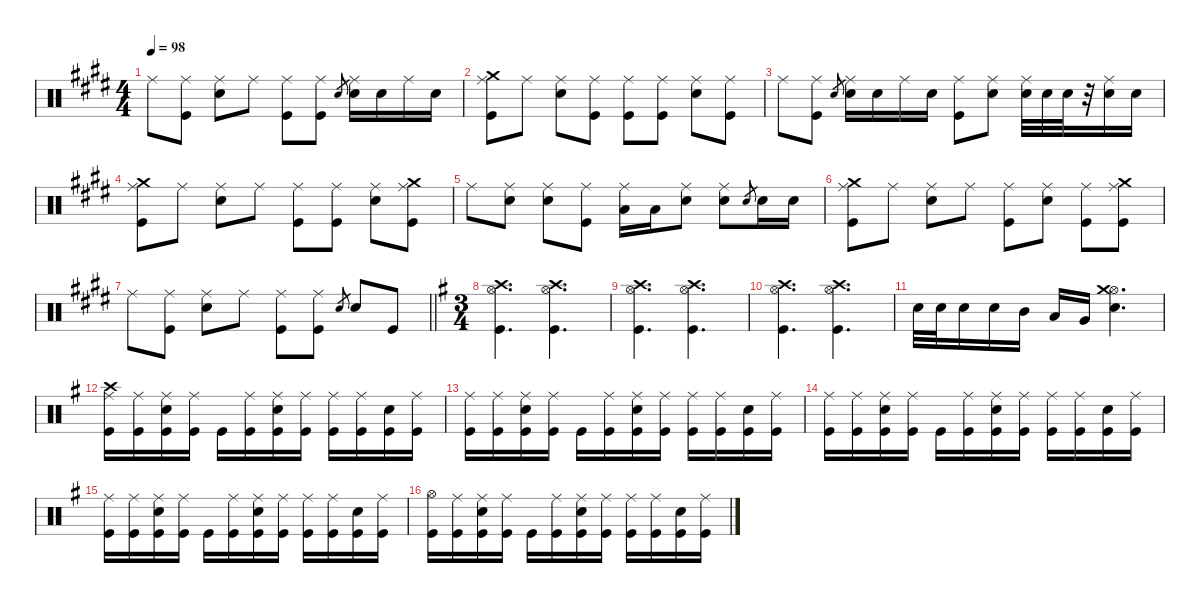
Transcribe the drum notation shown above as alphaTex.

\defaultSystemsLayout 4
\hideDynamics
\bracketExtendMode nobrackets
\singleTrackTrackNamePolicy hidden
\multiTrackTrackNamePolicy hidden
\firstSystemTrackNameMode fullname
\otherSystemsTrackNameOrientation horizontal
\track ("Drums" "drm.") {instrument percussion}
\staff {score}
\articulation defaults
\ts (4 4)
\tempo 98
\clef neutral
\ks c#minor "Ride (middle)"{acc forcenatural}.8{dy f beam Down}
("Ride (middle)"{acc forcenatural} "Kick (hit)"{acc forcenatural}).8{beam Down} ("Ride (middle)"{acc forcenatural} "Snare (hit) 2"{acc forcenatural}).8{beam Down} "Ride (middle)"{acc forcenatural}.8{beam Down} ("Ride (middle)"{acc forcenatural} "Kick (hit)"{acc forcenatural}).8{beam Down} ("Ride (middle)"{acc forcenatural} "Kick (hit)"{acc forcenatural}).8{beam Down} "Electric Snare (hit)"{acc forcenatural}.8{gr dy p beam Up} ("Ride (middle)"{acc forcenatural} "Snare (hit) 2"{acc forcenatural}).16{dy f beam Down} "Snare (hit) 2"{acc forcenatural}.16{beam Down} "Ride (middle)"{acc forcenatural}.16{beam Down} "Snare (hit) 2"{acc forcenatural}.16{beam Down} |
("Crash medium (hit)"{acc forcenatural} "Ride (middle)"{acc forcenatural} "Kick (hit)"{acc forcenatural}).8{dy mf beam Down} "Ride (middle)"{acc forcenatural}.8{dy f beam Down} ("Ride (middle)"{acc forcenatural} "Snare (hit) 2"{acc forcenatural}).8{beam Down} ("Ride (middle)"{acc forcenatural} "Kick (hit)"{acc forcenatural}).8{beam Down} ("Ride (middle)"{acc forcenatural} "Kick (hit)"{acc forcenatural}).8{beam Down} ("Ride (middle)"{acc forcenatural} "Kick (hit)"{acc forcenatural}).8{beam Down} ("Ride (middle)"{acc forcenatural} "Snare (hit) 2"{acc forcenatural}).8{beam Down} ("Ride (middle)"{acc forcenatural} "Kick (hit)"{acc forcenatural}).8{beam Down} |
"Ride (middle)"{acc forcenatural}.8{beam Down} ("Ride (middle)"{acc forcenatural} "Kick (hit)"{acc forcenatural}).8{beam Down} "Electric Snare (hit)"{acc forcenatural}.8{gr dy p beam Up} ("Ride (middle)"{acc forcenatural} "Snare (hit) 2"{acc forcenatural}).16{dy f beam Down} "Snare (hit) 2"{acc forcenatural}.16{beam Down} "Ride (middle)"{acc forcenatural}.16{beam Down} "Snare (hit) 2"{acc forcenatural}.16{beam Down} ("Ride (middle)"{acc forcenatural} "Kick (hit)"{acc forcenatural}).8{beam Down} ("Ride (middle)"{acc forcenatural} "Snare (hit) 2"{acc forcenatural}).8{beam Down} ("Ride (middle)"{acc forcenatural} "Snare (hit) 2"{acc forcenatural}).32{beam Down} "Snare (hit) 2"{acc forcenatural}.32{dy p beam Down} "Snare (hit) 2"{acc forcenatural}.32{beam Down} r.32{beam Down} ("Ride (middle)"{acc forcenatural} "Snare (hit) 2"{acc forcenatural}).16{dy f beam Down} "Snare (hit) 2"{acc forcenatural}.16{beam Down} |
("Crash medium (hit)"{acc forcenatural} "Ride (middle)"{acc forcenatural} "Kick (hit)"{acc forcenatural}).8{dy mf beam Down} "Ride (middle)"{acc forcenatural}.8{dy f beam Down} ("Ride (middle)"{acc forcenatural} "Snare (hit) 2"{acc forcenatural}).8{beam Down} "Ride (middle)"{acc forcenatural}.8{beam Down} ("Ride (middle)"{acc forcenatural} "Kick (hit)"{acc forcenatural}).8{beam Down} ("Ride (middle)"{acc forcenatural} "Kick (hit)"{acc forcenatural}).8{beam Down} ("Ride (middle)"{acc forcenatural} "Snare (hit) 2"{acc forcenatural}).8{beam Down} ("Crash medium (hit)"{acc forcenatural} "Ride (middle)"{acc forcenatural} "Kick (hit)"{acc forcenatural}).8{dy mp beam Down} |
"Ride (middle)"{acc forcenatural}.8{dy f beam Down} ("Ride (middle)"{acc forcenatural} "Snare (hit) 2"{acc forcenatural}).8{beam Down} ("Ride (middle)"{acc forcenatural} "Snare (hit) 2"{acc forcenatural}).8{beam Down} ("Ride (middle)"{acc forcenatural} "Kick (hit)"{acc forcenatural}).8{beam Down} ("Ride (middle)"{acc forcenatural} "Low Tom (hit)"{acc forcenatural}).16{beam Down} "Low Tom (hit)"{acc forcenatural}.16{beam Down} ("Ride (middle)"{acc forcenatural} "Snare (hit) 2"{acc forcenatural}).8{beam Down} ("Ride (middle)"{acc forcenatural} "Snare (hit) 2"{acc forcenatural}).8{beam Down} "Electric Snare (hit)"{acc forcenatural}.8{gr dy pp beam Up} "Snare (hit) 2"{acc forcenatural}.16{dy f beam Down} "Snare (hit) 2"{acc forcenatural}.16{beam Down} |
("Crash medium (hit)"{acc forcenatural} "Ride (middle)"{acc forcenatural} "Kick (hit)"{acc forcenatural}).8{dy mf beam Down} "Ride (middle)"{acc forcenatural}.8{dy f beam Down} ("Ride (middle)"{acc forcenatural} "Snare (hit) 2"{acc forcenatural}).8{beam Down} "Ride (middle)"{acc forcenatural}.8{beam Down} ("Ride (middle)"{acc forcenatural} "Kick (hit)"{acc forcenatural}).8{beam Down} ("Ride (middle)"{acc forcenatural} "Snare (hit) 2"{acc forcenatural}).8{beam Down} ("Ride (middle)"{acc forcenatural} "Kick (hit)"{acc forcenatural}).8{beam Down} ("Crash medium (hit)"{acc forcenatural} "Ride (middle)"{acc forcenatural} "Kick (hit)"{acc forcenatural}).8{dy mf beam Down} |
\barLineRight lightlight "Ride (middle)"{acc forcenatural}.8{dy f beam Down}
("Ride (middle)"{acc forcenatural} "Kick (hit)"{acc forcenatural}).8{beam Down} ("Ride (middle)"{acc forcenatural} "Snare (hit) 2"{acc forcenatural}).8{beam Down} "Ride (middle)"{acc forcenatural}.8{beam Down} ("Ride (middle)"{acc forcenatural} "Kick (hit)"{acc forcenatural}).8{beam Down} ("Ride (middle)"{acc forcenatural} "Kick (hit)"{acc forcenatural}).8{beam Down} "Snare (hit) 2"{acc forcenatural}.8{gr beam Up} "Snare (hit) 2"{acc forcenatural}.8{dy ff beam Up} "Kick (hit)"{acc forcenatural}.8{dy f beam Up} |
\ts (3 4)
\beaming (8 2 2 2)
\ks eminor
("Crash high (hit)"{acc forcenatural} "Hi-Hat (open)"{acc forcenatural} "Kick (hit)"{acc forcenatural}).4{d beam Down} ("Crash high (hit)"{acc forcenatural} "Hi-Hat (open)"{acc forcenatural} "Kick (hit)"{acc forcenatural}).4{d beam Down} |
("Crash high (hit)"{acc forcenatural} "Hi-Hat (open)"{acc forcenatural} "Kick (hit)"{acc forcenatural}).4{d beam Down} ("Crash high (hit)"{acc forcenatural} "Hi-Hat (open)"{acc forcenatural} "Kick (hit)"{acc forcenatural}).4{d beam Down} |
("Crash high (hit)"{acc forcenatural} "Hi-Hat (open)"{acc forcenatural} "Kick (hit)"{acc forcenatural}).4{d beam Down} ("Crash high (hit)"{acc forcenatural} "Hi-Hat (open)"{acc forcenatural} "Kick (hit)"{acc forcenatural}).4{d beam Down} |
"Snare (hit) 2"{acc forcenatural}.32{beam Down} "Snare (hit) 2"{acc forcenatural}.32{beam Down} "Snare (hit) 2"{acc forcenatural}.16{beam Down} "Snare (hit) 2"{acc forcenatural}.16{beam Down} "Mid Tom (hit)"{acc forcenatural}.16{beam Down} "Low Tom (hit)"{acc forcenatural}.16{beam Up} "Very Low Tom (hit)"{acc forcenatural}.16{beam Up} ("Hi-Hat (open)"{acc forcenatural} "Crash medium (hit)"{acc forcenatural} "Snare (hit) 2"{acc forcenatural}).4{d beam Down} |
("Crash high (hit)"{acc forcenatural} "Ride (middle)"{acc forcenatural} "Kick (hit)"{acc forcenatural}).16{beam Down} ("Ride (middle)"{acc forcenatural} "Kick (hit)"{acc forcenatural}).16{beam Down} ("Ride (middle)"{acc forcenatural} "Snare (hit) 2"{acc forcenatural} "Kick (hit)"{acc forcenatural}).16{beam Down} ("Ride (middle)"{acc forcenatural} "Kick (hit)"{acc forcenatural}).16{beam Down} "Kick (hit)"{acc forcenatural}.16{beam Down} ("Ride (middle)"{acc forcenatural} "Kick (hit)"{acc forcenatural}).16{beam Down} ("Ride (middle)"{acc forcenatural} "Snare (hit) 2"{acc forcenatural} "Kick (hit)"{acc forcenatural}).16{beam Down} ("Ride (middle)"{acc forcenatural} "Kick (hit)"{acc forcenatural}).16{beam Down} ("Ride (middle)"{acc forcenatural} "Kick (hit)"{acc forcenatural}).16{beam Down} ("Ride (middle)"{acc forcenatural} "Kick (hit)"{acc forcenatural}).16{beam Down} ("Snare (hit) 2"{acc forcenatural} "Kick (hit)"{acc forcenatural}).16{beam Down} ("Ride (middle)"{acc forcenatural} "Kick (hit)"{acc forcenatural}).16{beam Down} |
("Ride (middle)"{acc forcenatural} "Kick (hit)"{acc forcenatural}).16{beam Down} ("Ride (middle)"{acc forcenatural} "Kick (hit)"{acc forcenatural}).16{beam Down} ("Ride (middle)"{acc forcenatural} "Snare (hit) 2"{acc forcenatural} "Kick (hit)"{acc forcenatural}).16{beam Down} ("Ride (middle)"{acc forcenatural} "Kick (hit)"{acc forcenatural}).16{beam Down} "Kick (hit)"{acc forcenatural}.16{beam Down} ("Ride (middle)"{acc forcenatural} "Kick (hit)"{acc forcenatural}).16{beam Down} ("Ride (middle)"{acc forcenatural} "Snare (hit) 2"{acc forcenatural} "Kick (hit)"{acc forcenatural}).16{beam Down} ("Ride (middle)"{acc forcenatural} "Kick (hit)"{acc forcenatural}).16{beam Down} ("Ride (middle)"{acc forcenatural} "Kick (hit)"{acc forcenatural}).16{beam Down} ("Ride (middle)"{acc forcenatural} "Kick (hit)"{acc forcenatural}).16{beam Down} ("Snare (hit) 2"{acc forcenatural} "Kick (hit)"{acc forcenatural}).16{beam Down} ("Ride (middle)"{acc forcenatural} "Kick (hit)"{acc forcenatural}).16{beam Down} |
("Ride (middle)"{acc forcenatural} "Kick (hit)"{acc forcenatural}).16{beam Down} ("Ride (middle)"{acc forcenatural} "Kick (hit)"{acc forcenatural}).16{beam Down} ("Ride (middle)"{acc forcenatural} "Snare (hit) 2"{acc forcenatural} "Kick (hit)"{acc forcenatural}).16{beam Down} ("Ride (middle)"{acc forcenatural} "Kick (hit)"{acc forcenatural}).16{beam Down} "Kick (hit)"{acc forcenatural}.16{beam Down} ("Ride (middle)"{acc forcenatural} "Kick (hit)"{acc forcenatural}).16{beam Down} ("Ride (middle)"{acc forcenatural} "Snare (hit) 2"{acc forcenatural} "Kick (hit)"{acc forcenatural}).16{beam Down} ("Ride (middle)"{acc forcenatural} "Kick (hit)"{acc forcenatural}).16{beam Down} ("Ride (middle)"{acc forcenatural} "Kick (hit)"{acc forcenatural}).16{beam Down} ("Ride (middle)"{acc forcenatural} "Kick (hit)"{acc forcenatural}).16{beam Down} ("Snare (hit) 2"{acc forcenatural} "Kick (hit)"{acc forcenatural}).16{beam Down} ("Ride (middle)"{acc forcenatural} "Kick (hit)"{acc forcenatural}).16{beam Down} |
("Ride (middle)"{acc forcenatural} "Kick (hit)"{acc forcenatural}).16{beam Down} ("Ride (middle)"{acc forcenatural} "Kick (hit)"{acc forcenatural}).16{beam Down} ("Ride (middle)"{acc forcenatural} "Snare (hit) 2"{acc forcenatural} "Kick (hit)"{acc forcenatural}).16{beam Down} ("Ride (middle)"{acc forcenatural} "Kick (hit)"{acc forcenatural}).16{beam Down} "Kick (hit)"{acc forcenatural}.16{beam Down} ("Ride (middle)"{acc forcenatural} "Kick (hit)"{acc forcenatural}).16{beam Down} ("Ride (middle)"{acc forcenatural} "Snare (hit) 2"{acc forcenatural} "Kick (hit)"{acc forcenatural}).16{beam Down} ("Ride (middle)"{acc forcenatural} "Kick (hit)"{acc forcenatural}).16{beam Down} ("Ride (middle)"{acc forcenatural} "Kick (hit)"{acc forcenatural}).16{beam Down} ("Ride (middle)"{acc forcenatural} "Kick (hit)"{acc forcenatural}).16{beam Down} ("Snare (hit) 2"{acc forcenatural} "Kick (hit)"{acc forcenatural}).16{beam Down} ("Ride (middle)"{acc forcenatural} "Kick (hit)"{acc forcenatural}).16{beam Down} |
("Hi-Hat (open)"{acc forcenatural} "Kick (hit)"{acc forcenatural}).16{beam Down} ("Ride (middle)"{acc forcenatural} "Kick (hit)"{acc forcenatural}).16{beam Down} ("Ride (middle)"{acc forcenatural} "Snare (hit) 2"{acc forcenatural} "Kick (hit)"{acc forcenatural}).16{beam Down} ("Ride (middle)"{acc forcenatural} "Kick (hit)"{acc forcenatural}).16{beam Down} "Kick (hit)"{acc forcenatural}.16{beam Down} ("Ride (middle)"{acc forcenatural} "Kick (hit)"{acc forcenatural}).16{beam Down} ("Ride (middle)"{acc forcenatural} "Snare (hit) 2"{acc forcenatural} "Kick (hit)"{acc forcenatural}).16{beam Down} ("Ride (middle)"{acc forcenatural} "Kick (hit)"{acc forcenatural}).16{beam Down} ("Ride (middle)"{acc forcenatural} "Kick (hit)"{acc forcenatural}).16{beam Down} ("Ride (middle)"{acc forcenatural} "Kick (hit)"{acc forcenatural}).16{beam Down} ("Snare (hit) 2"{acc forcenatural} "Kick (hit)"{acc forcenatural}).16{beam Down} ("Ride (middle)"{acc forcenatural} "Kick (hit)"{acc forcenatural}).16{beam Down}
